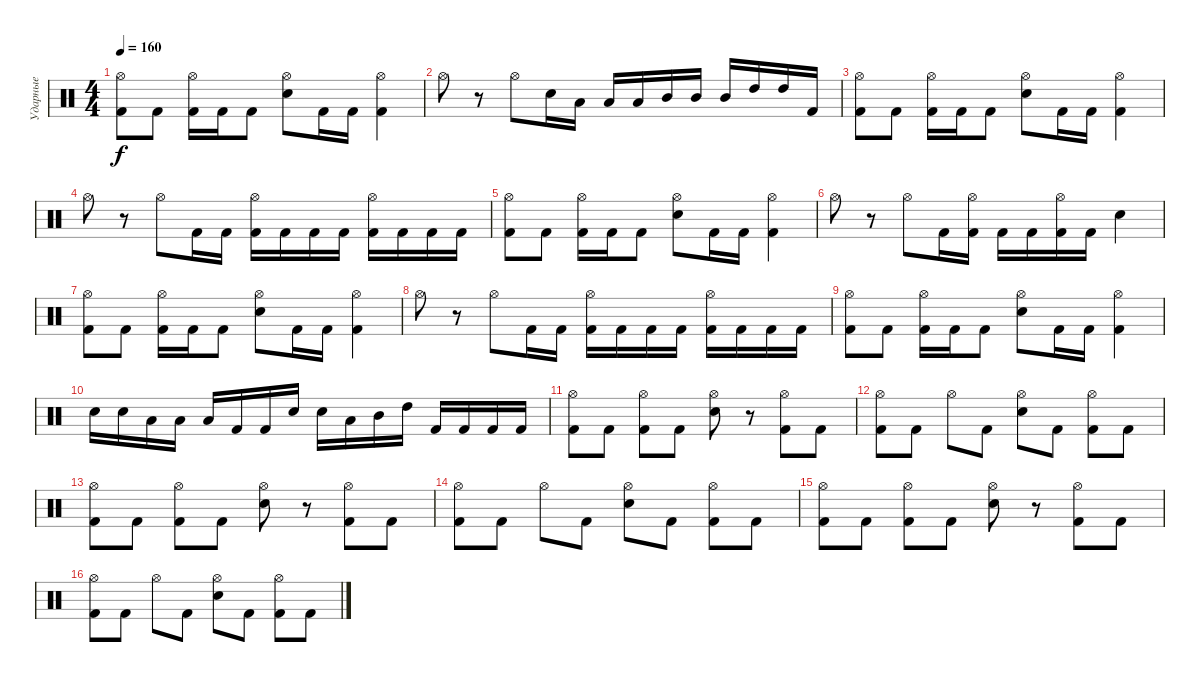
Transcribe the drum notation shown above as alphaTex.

\track ("Ударные" "Ударные") {instrument percussion}
\staff {score}
\articulation defaults
\ts (4 4)
\tempo 160
\clef neutral
\ks c
("Hi-Hat (open)" "Kick (hit) 2").8{dy f} "Kick (hit) 2".8 ("Hi-Hat (open)" "Kick (hit) 2").16 "Kick (hit) 2".16 "Kick (hit) 2".8 ("Hi-Hat (open)" "Electric Snare (hit)").8 "Kick (hit) 2".16 "Kick (hit) 2".16 ("Hi-Hat (open)" "Kick (hit) 2").4 |
"Hi-Hat (open)".8 r.8 "Hi-Hat (open)".8 "Electric Snare (hit)".16 "Low Tom (hit)".16 "Low Tom (hit)".16 "Low Tom (hit)".16 "Mid Tom (hit)".16 "Mid Tom (hit)".16 "Mid Tom (hit)".16 "High Tom (hit)".16 "High Tom (hit)".16 "Kick (hit) 2".16 |
("Hi-Hat (open)" "Kick (hit) 2").8 "Kick (hit) 2".8 ("Hi-Hat (open)" "Kick (hit) 2").16 "Kick (hit) 2".16 "Kick (hit) 2".8 ("Hi-Hat (open)" "Electric Snare (hit)").8 "Kick (hit) 2".16 "Kick (hit) 2".16 ("Hi-Hat (open)" "Kick (hit) 2").4 |
"Hi-Hat (open)".8 r.8 "Hi-Hat (open)".8 "Kick (hit) 2".16 "Kick (hit) 2".16 ("Hi-Hat (open)" "Kick (hit) 2").16 "Kick (hit) 2".16 "Kick (hit) 2".16 "Kick (hit) 2".16 ("Hi-Hat (open)" "Kick (hit) 2").16 "Kick (hit) 2".16 "Kick (hit) 2".16 "Kick (hit) 2".16 |
("Hi-Hat (open)" "Kick (hit) 2").8 "Kick (hit) 2".8 ("Hi-Hat (open)" "Kick (hit) 2").16 "Kick (hit) 2".16 "Kick (hit) 2".8 ("Hi-Hat (open)" "Electric Snare (hit)").8 "Kick (hit) 2".16 "Kick (hit) 2".16 ("Hi-Hat (open)" "Kick (hit) 2").4 |
"Hi-Hat (open)".8 r.8 "Hi-Hat (open)".8 "Kick (hit) 2".16 ("Hi-Hat (open)" "Kick (hit) 2").16 "Kick (hit) 2".16 "Kick (hit) 2".16 ("Hi-Hat (open)" "Kick (hit) 2").16 "Kick (hit) 2".16 "Electric Snare (hit)".4 |
("Hi-Hat (open)" "Kick (hit) 2").8 "Kick (hit) 2".8 ("Hi-Hat (open)" "Kick (hit) 2").16 "Kick (hit) 2".16 "Kick (hit) 2".8 ("Hi-Hat (open)" "Electric Snare (hit)").8 "Kick (hit) 2".16 "Kick (hit) 2".16 ("Hi-Hat (open)" "Kick (hit) 2").4 |
"Hi-Hat (open)".8 r.8 "Hi-Hat (open)".8 "Kick (hit) 2".16 "Kick (hit) 2".16 ("Hi-Hat (open)" "Kick (hit) 2").16 "Kick (hit) 2".16 "Kick (hit) 2".16 "Kick (hit) 2".16 ("Hi-Hat (open)" "Kick (hit) 2").16 "Kick (hit) 2".16 "Kick (hit) 2".16 "Kick (hit) 2".16 |
("Hi-Hat (open)" "Kick (hit) 2").8 "Kick (hit) 2".8 ("Hi-Hat (open)" "Kick (hit) 2").16 "Kick (hit) 2".16 "Kick (hit) 2".8 ("Hi-Hat (open)" "Electric Snare (hit)").8 "Kick (hit) 2".16 "Kick (hit) 2".16 ("Hi-Hat (open)" "Kick (hit) 2").4 |
"Electric Snare (hit)".16 "Electric Snare (hit)".16 "Low Tom (hit)".16 "Low Tom (hit)".16 "Low Tom (hit)".16 "Kick (hit) 2".16 "Kick (hit) 2".16 "Electric Snare (hit)".16 "Electric Snare (hit)".16 "Low Tom (hit)".16 "Mid Tom (hit)".16 "High Tom (hit)".16 "Kick (hit) 2".16 "Kick (hit) 2".16 "Kick (hit) 2".16 "Kick (hit) 2".16 |
("Hi-Hat (open)" "Kick (hit) 2").8 "Kick (hit) 2".8 ("Hi-Hat (open)" "Kick (hit) 2").8 "Kick (hit) 2".8 ("Hi-Hat (open)" "Electric Snare (hit)").8 r.8 ("Hi-Hat (open)" "Kick (hit) 2").8 "Kick (hit) 2".8 |
("Hi-Hat (open)" "Kick (hit) 2").8 "Kick (hit) 2".8 "Hi-Hat (open)".8 "Kick (hit) 2".8 ("Hi-Hat (open)" "Electric Snare (hit)").8 "Kick (hit) 2".8 ("Hi-Hat (open)" "Kick (hit) 2").8 "Kick (hit) 2".8 |
("Hi-Hat (open)" "Kick (hit) 2").8 "Kick (hit) 2".8 ("Hi-Hat (open)" "Kick (hit) 2").8 "Kick (hit) 2".8 ("Hi-Hat (open)" "Electric Snare (hit)").8 r.8 ("Hi-Hat (open)" "Kick (hit) 2").8 "Kick (hit) 2".8 |
("Hi-Hat (open)" "Kick (hit) 2").8 "Kick (hit) 2".8 "Hi-Hat (open)".8 "Kick (hit) 2".8 ("Hi-Hat (open)" "Electric Snare (hit)").8 "Kick (hit) 2".8 ("Hi-Hat (open)" "Kick (hit) 2").8 "Kick (hit) 2".8 |
("Hi-Hat (open)" "Kick (hit) 2").8 "Kick (hit) 2".8 ("Hi-Hat (open)" "Kick (hit) 2").8 "Kick (hit) 2".8 ("Hi-Hat (open)" "Electric Snare (hit)").8 r.8 ("Hi-Hat (open)" "Kick (hit) 2").8 "Kick (hit) 2".8 |
("Hi-Hat (open)" "Kick (hit) 2").8 "Kick (hit) 2".8 "Hi-Hat (open)".8 "Kick (hit) 2".8 ("Hi-Hat (open)" "Electric Snare (hit)").8 "Kick (hit) 2".8 ("Hi-Hat (open)" "Kick (hit) 2").8 "Kick (hit) 2".8
